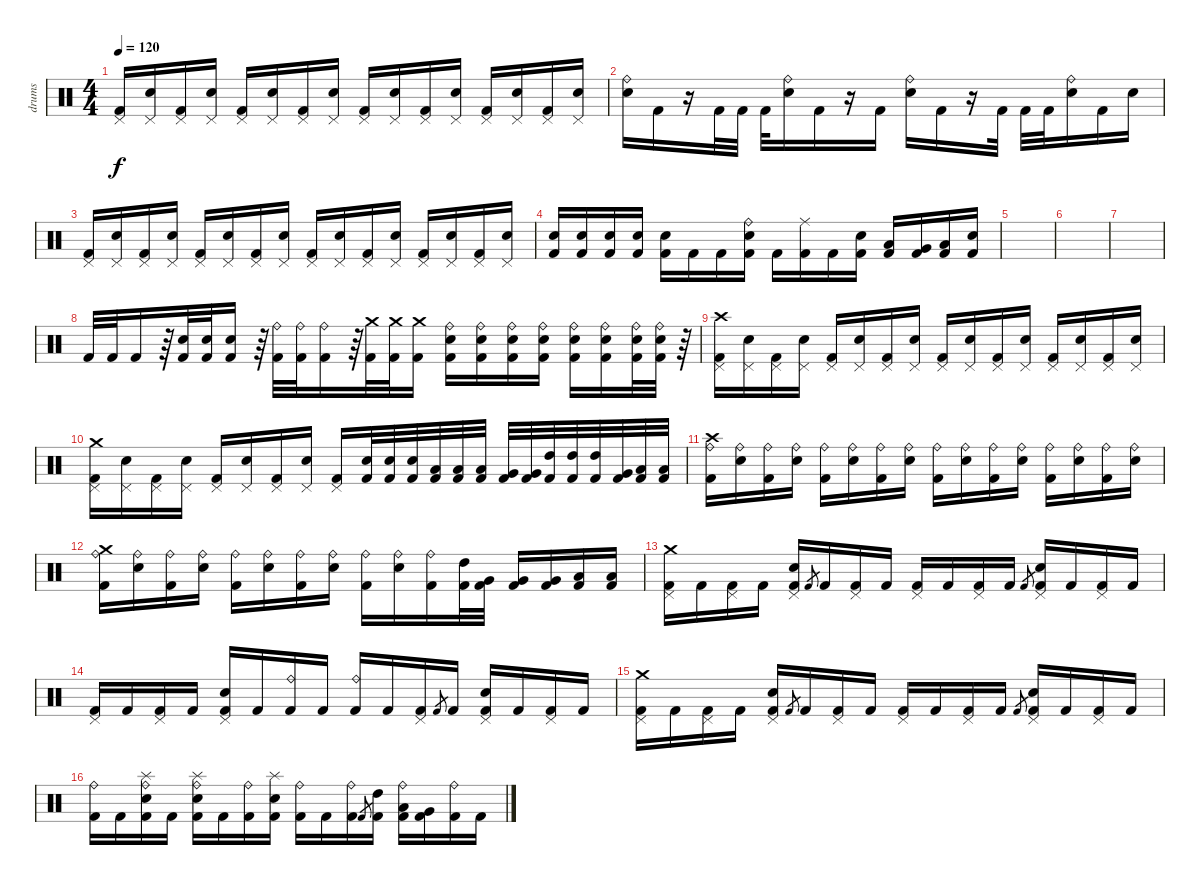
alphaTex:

\track ("drums" "drums") {instrument percussion}
\staff {score}
\articulation defaults
\ts (4 4)
\tempo 120
\clef neutral
\ks c
("Pedal Hi-Hat (hit)" "Kick (hit) 2").16{dy f} ("Pedal Hi-Hat (hit)" "Electric Snare (hit)").16 ("Pedal Hi-Hat (hit)" "Kick (hit) 2").16 ("Pedal Hi-Hat (hit)" "Electric Snare (hit)").16 ("Pedal Hi-Hat (hit)" "Kick (hit) 2").16 ("Pedal Hi-Hat (hit)" "Electric Snare (hit)").16 ("Pedal Hi-Hat (hit)" "Kick (hit) 2").16 ("Pedal Hi-Hat (hit)" "Electric Snare (hit)").16 ("Pedal Hi-Hat (hit)" "Kick (hit) 2").16 ("Pedal Hi-Hat (hit)" "Electric Snare (hit)").16 ("Pedal Hi-Hat (hit)" "Kick (hit) 2").16 ("Pedal Hi-Hat (hit)" "Electric Snare (hit)").16 ("Pedal Hi-Hat (hit)" "Kick (hit) 2").16 ("Pedal Hi-Hat (hit)" "Electric Snare (hit)").16 ("Pedal Hi-Hat (hit)" "Kick (hit) 2").16 ("Pedal Hi-Hat (hit)" "Electric Snare (hit)").16 |
("Ride (bell)" "Electric Snare (hit)").16 "Kick (hit) 2".16 r.16 "Kick (hit) 2".32 "Kick (hit) 2".32 "Kick (hit) 2".32 ("Ride (bell)" "Electric Snare (hit)").16 "Kick (hit) 2".16 r.16 "Kick (hit) 2".16 ("Ride (bell)" "Electric Snare (hit)").16 "Kick (hit) 2".16 r.16 "Kick (hit) 2".32 "Kick (hit) 2".32 "Kick (hit) 2".32 ("Ride (bell)" "Electric Snare (hit)").16 "Kick (hit) 2".16 "Electric Snare (hit)".16 |
("Pedal Hi-Hat (hit)" "Kick (hit) 2").16 ("Pedal Hi-Hat (hit)" "Electric Snare (hit)").16 ("Pedal Hi-Hat (hit)" "Kick (hit) 2").16 ("Pedal Hi-Hat (hit)" "Electric Snare (hit)").16 ("Pedal Hi-Hat (hit)" "Kick (hit) 2").16 ("Pedal Hi-Hat (hit)" "Electric Snare (hit)").16 ("Pedal Hi-Hat (hit)" "Kick (hit) 2").16 ("Pedal Hi-Hat (hit)" "Electric Snare (hit)").16 ("Pedal Hi-Hat (hit)" "Kick (hit) 2").16 ("Pedal Hi-Hat (hit)" "Electric Snare (hit)").16 ("Pedal Hi-Hat (hit)" "Kick (hit) 2").16 ("Pedal Hi-Hat (hit)" "Electric Snare (hit)").16 ("Pedal Hi-Hat (hit)" "Kick (hit) 2").16 ("Pedal Hi-Hat (hit)" "Electric Snare (hit)").16 ("Pedal Hi-Hat (hit)" "Kick (hit) 2").16 ("Pedal Hi-Hat (hit)" "Electric Snare (hit)").16 |
("Electric Snare (hit)" "Kick (hit) 2").16 ("Electric Snare (hit)" "Kick (hit) 2").16 ("Electric Snare (hit)" "Kick (hit) 2").16 ("Electric Snare (hit)" "Kick (hit) 2").16 ("Electric Snare (hit)" "Kick (hit) 2").16 "Kick (hit) 2".16 "Kick (hit) 2".16 ("Ride (bell)" "Electric Snare (hit)" "Kick (hit) 2").16 "Kick (hit) 2".16 ("Ride (middle)" "Kick (hit) 2").16 "Kick (hit) 2".16 ("Electric Snare (hit)" "Kick (hit) 2").16 ("Low Tom (hit)" "Kick (hit) 2").16 ("Very Low Tom (hit)" "Kick (hit) 2").16 ("Low Floor Tom (hit)" "Kick (hit) 2").16 ("Electric Snare (hit)" "Kick (hit) 2").16 |
|
|
|
"Kick (hit) 2".32 "Kick (hit) 2".32 "Kick (hit) 2".16 r.64 ("Electric Snare (hit)" "Kick (hit) 2").32 ("Electric Snare (hit)" "Kick (hit) 2").32 ("Electric Snare (hit)" "Kick (hit) 2").16 r.64 ("Ride (bell)" "Kick (hit) 2").32 ("Ride (bell)" "Kick (hit) 2").32 ("Ride (bell)" "Kick (hit) 2").16 r.64 ("Crash medium (hit)" "Kick (hit) 2").32 ("Crash medium (hit)" "Kick (hit) 2").32 ("Crash medium (hit)" "Kick (hit) 2").16 ("Ride (bell)" "Electric Snare (hit)" "Kick (hit) 2").16 ("Ride (bell)" "Electric Snare (hit)" "Kick (hit) 2").16 ("Ride (bell)" "Electric Snare (hit)" "Kick (hit) 2").16 ("Ride (bell)" "Electric Snare (hit)" "Kick (hit) 2").16 ("Ride (bell)" "Electric Snare (hit)" "Kick (hit) 2").16 ("Ride (bell)" "Electric Snare (hit)" "Kick (hit) 2").16 ("Ride (bell)" "Electric Snare (hit)" "Kick (hit) 2").32 ("Ride (bell)" "Electric Snare (hit)" "Kick (hit) 2").32 r.64 |
("Crash high (hit)" "Pedal Hi-Hat (hit)" "Kick (hit) 2").16 ("Pedal Hi-Hat (hit)" "Electric Snare (hit)").16 ("Pedal Hi-Hat (hit)" "Kick (hit) 2").16 ("Pedal Hi-Hat (hit)" "Electric Snare (hit)").16 ("Pedal Hi-Hat (hit)" "Kick (hit) 2").16 ("Pedal Hi-Hat (hit)" "Electric Snare (hit)").16 ("Pedal Hi-Hat (hit)" "Kick (hit) 2").16 ("Pedal Hi-Hat (hit)" "Electric Snare (hit)").16 ("Pedal Hi-Hat (hit)" "Kick (hit) 2").16 ("Pedal Hi-Hat (hit)" "Electric Snare (hit)").16 ("Pedal Hi-Hat (hit)" "Kick (hit) 2").16 ("Pedal Hi-Hat (hit)" "Electric Snare (hit)").16 ("Pedal Hi-Hat (hit)" "Kick (hit) 2").16 ("Pedal Hi-Hat (hit)" "Electric Snare (hit)").16 ("Pedal Hi-Hat (hit)" "Kick (hit) 2").16 ("Pedal Hi-Hat (hit)" "Electric Snare (hit)").16 |
("Crash medium (hit)" "Pedal Hi-Hat (hit)" "Kick (hit) 2").16 ("Pedal Hi-Hat (hit)" "Electric Snare (hit)").16 ("Pedal Hi-Hat (hit)" "Kick (hit) 2").16 ("Pedal Hi-Hat (hit)" "Electric Snare (hit)").16 ("Pedal Hi-Hat (hit)" "Kick (hit) 2").16 ("Pedal Hi-Hat (hit)" "Electric Snare (hit)").16 ("Pedal Hi-Hat (hit)" "Kick (hit) 2").16 ("Pedal Hi-Hat (hit)" "Electric Snare (hit)").16 ("Pedal Hi-Hat (hit)" "Kick (hit) 2").16 ("Electric Snare (hit)" "Kick (hit) 2").32 ("Electric Snare (hit)" "Kick (hit) 2").32 ("Electric Snare (hit)" "Kick (hit) 2").32 ("Low Tom (hit)" "Kick (hit) 2").32 ("Low Tom (hit)" "Kick (hit) 2").32 ("Low Tom (hit)" "Kick (hit) 2").32 ("Very Low Tom (hit)" "Kick (hit) 2").32 ("Very Low Tom (hit)" "Kick (hit) 2").32 ("High Tom (hit)" "Kick (hit) 2").32 ("High Tom (hit)" "Kick (hit) 2").32 ("High Tom (hit)" "Kick (hit) 2").32 ("Very Low Tom (hit)" "Kick (hit) 2").32 ("Low Floor Tom (hit)" "Kick (hit) 2").32 ("Low Floor Tom (hit)" "Kick (hit) 2").32 |
("Crash high (hit)" "Ride (bell)" "Kick (hit) 2").16 ("Ride (bell)" "Electric Snare (hit)").16 ("Ride (bell)" "Kick (hit) 2").16 ("Ride (bell)" "Electric Snare (hit)").16 ("Ride (bell)" "Kick (hit) 2").16 ("Ride (bell)" "Electric Snare (hit)").16 ("Ride (bell)" "Kick (hit) 2").16 ("Ride (bell)" "Electric Snare (hit)").16 ("Ride (bell)" "Kick (hit) 2").16 ("Ride (bell)" "Electric Snare (hit)").16 ("Ride (bell)" "Kick (hit) 2").16 ("Ride (bell)" "Electric Snare (hit)").16 ("Ride (bell)" "Kick (hit) 2").16 ("Ride (bell)" "Electric Snare (hit)").16 ("Ride (bell)" "Kick (hit) 2").16 ("Ride (bell)" "Electric Snare (hit)").16 |
("Crash medium (hit)" "Ride (bell)" "Kick (hit) 2").16 ("Ride (bell)" "Electric Snare (hit)").16 ("Ride (bell)" "Kick (hit) 2").16 ("Ride (bell)" "Electric Snare (hit)").16 ("Ride (bell)" "Kick (hit) 2").16 ("Ride (bell)" "Electric Snare (hit)").16 ("Ride (bell)" "Kick (hit) 2").16 ("Ride (bell)" "Electric Snare (hit)").16 ("Ride (bell)" "Kick (hit) 2").16 ("Ride (bell)" "Electric Snare (hit)").16 ("Ride (bell)" "Kick (hit) 2").16 ("High Tom (hit)" "Kick (hit) 2").32 ("Very Low Tom (hit)" "Kick (hit) 2").32 ("Very Low Tom (hit)" "Kick (hit) 2").16 ("Very Low Tom (hit)" "Kick (hit) 2").16 ("Low Floor Tom (hit)" "Kick (hit) 2").16 ("Low Floor Tom (hit)" "Kick (hit) 2").16 |
("Crash medium (hit)" "Pedal Hi-Hat (hit)" "Kick (hit) 2").16 "Kick (hit) 2".16 ("Pedal Hi-Hat (hit)" "Kick (hit) 2").16 "Kick (hit) 2".16 ("Electric Snare (hit)" "Pedal Hi-Hat (hit)" "Kick (hit) 2").16 "Kick (hit) 2".8{gr} "Kick (hit) 2".16 ("Pedal Hi-Hat (hit)" "Kick (hit) 2").16 "Kick (hit) 2".16 ("Pedal Hi-Hat (hit)" "Kick (hit) 2").16 "Kick (hit) 2".16 ("Pedal Hi-Hat (hit)" "Kick (hit) 2").16 "Kick (hit) 2".16 "Kick (hit) 2".8{gr} ("Electric Snare (hit)" "Pedal Hi-Hat (hit)" "Kick (hit) 2").16 "Kick (hit) 2".16 ("Pedal Hi-Hat (hit)" "Kick (hit) 2").16 "Kick (hit) 2".16 |
("Pedal Hi-Hat (hit)" "Kick (hit) 2").16 "Kick (hit) 2".16 ("Pedal Hi-Hat (hit)" "Kick (hit) 2").16 "Kick (hit) 2".16 ("Electric Snare (hit)" "Pedal Hi-Hat (hit)" "Kick (hit) 2").16 "Kick (hit) 2".16 ("Ride (bell)" "Kick (hit) 2").16 "Kick (hit) 2".16 ("Ride (bell)" "Kick (hit) 2").16 "Kick (hit) 2".16 ("Pedal Hi-Hat (hit)" "Kick (hit) 2").16 "Kick (hit) 2".8{gr} "Kick (hit) 2".16 ("Electric Snare (hit)" "Pedal Hi-Hat (hit)" "Kick (hit) 2").16 "Kick (hit) 2".16 ("Pedal Hi-Hat (hit)" "Kick (hit) 2").16 "Kick (hit) 2".16 |
("Crash medium (hit)" "Pedal Hi-Hat (hit)" "Kick (hit) 2").16 "Kick (hit) 2".16 ("Pedal Hi-Hat (hit)" "Kick (hit) 2").16 "Kick (hit) 2".16 ("Electric Snare (hit)" "Pedal Hi-Hat (hit)" "Kick (hit) 2").16 "Kick (hit) 2".8{gr} "Kick (hit) 2".16 ("Pedal Hi-Hat (hit)" "Kick (hit) 2").16 "Kick (hit) 2".16 ("Pedal Hi-Hat (hit)" "Kick (hit) 2").16 "Kick (hit) 2".16 ("Pedal Hi-Hat (hit)" "Kick (hit) 2").16 "Kick (hit) 2".16 "Kick (hit) 2".8{gr} ("Electric Snare (hit)" "Pedal Hi-Hat (hit)" "Kick (hit) 2").16 "Kick (hit) 2".16 ("Pedal Hi-Hat (hit)" "Kick (hit) 2").16 "Kick (hit) 2".16 |
("Ride (bell)" "Kick (hit) 2").16 "Kick (hit) 2".16 ("Splash (hit)" "Electric Snare (hit)" "Ride (bell)" "Kick (hit) 2").16 "Kick (hit) 2".16 ("Splash (hit)" "Electric Snare (hit)" "Ride (bell)" "Kick (hit) 2").16 "Kick (hit) 2".16 ("Ride (bell)" "Kick (hit) 2").16 ("Splash (hit)" "Electric Snare (hit)" "Kick (hit) 2").16 ("Ride (bell)" "Kick (hit) 2").16 "Kick (hit) 2".16 ("Ride (bell)" "Kick (hit) 2").16 "Kick (hit) 2".8{gr} ("High Tom (hit)" "Kick (hit) 2").16 ("Low Tom (hit)" "Ride (bell)" "Kick (hit) 2").16 ("Very Low Tom (hit)" "Kick (hit) 2").16 ("Ride (bell)" "Kick (hit) 2").16 "Kick (hit) 2".16
